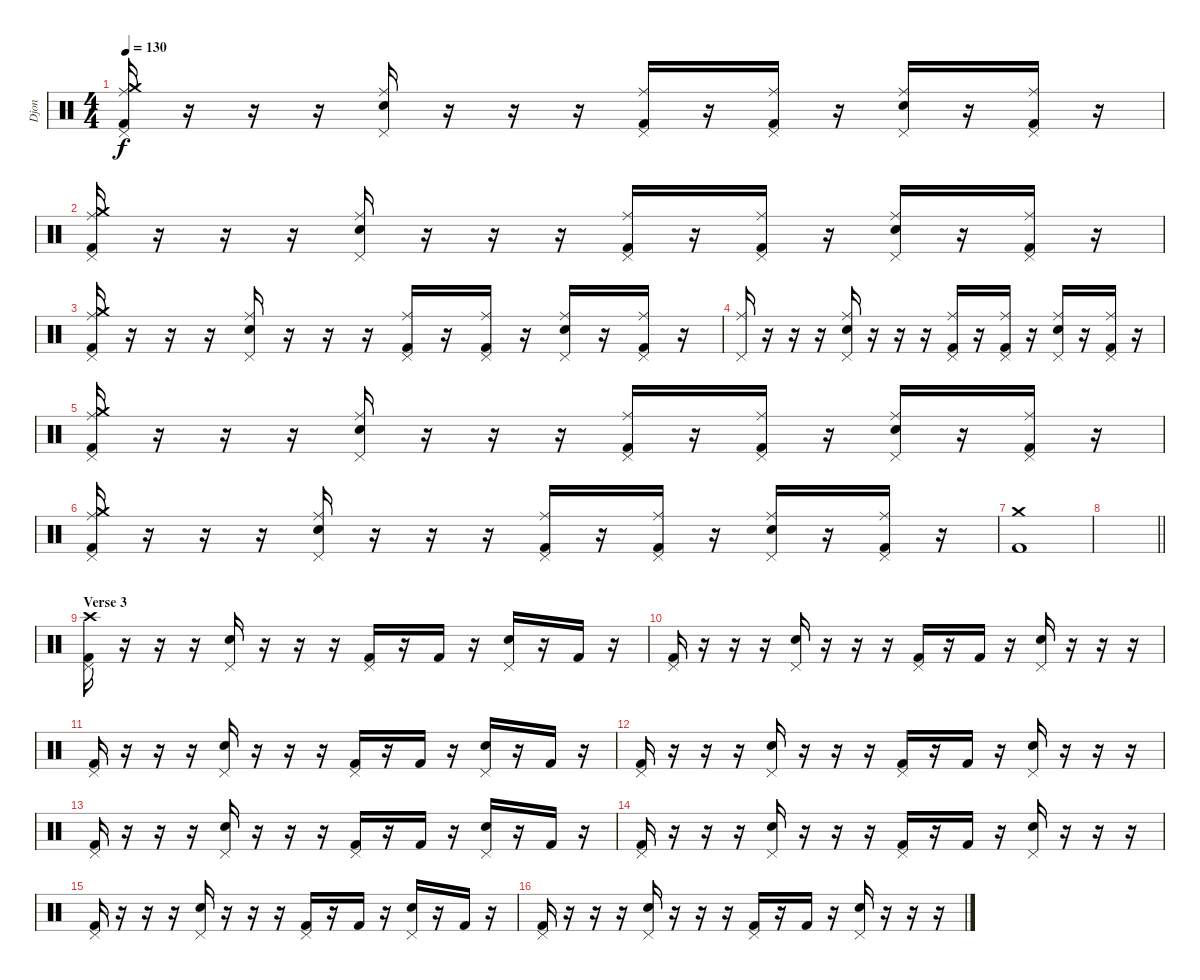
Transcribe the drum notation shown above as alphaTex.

\track ("Djon" "Djon") {instrument percussion}
\staff {score}
\articulation defaults
\ts (4 4)
\tempo 130
\clef neutral
\ks c
("Pedal Hi-Hat (hit)" "Ride (middle)" "Crash medium (hit)" "Kick (hit) 2").16{dy f} r.16 r.16 r.16 ("Pedal Hi-Hat (hit)" "Ride (middle)" "Snare (hit) 2").16 r.16 r.16 r.16 ("Pedal Hi-Hat (hit)" "Ride (middle)" "Kick (hit) 2").16 r.16 ("Pedal Hi-Hat (hit)" "Ride (middle)" "Kick (hit) 2").16 r.16 ("Pedal Hi-Hat (hit)" "Ride (middle)" "Snare (hit) 2").16 r.16 ("Pedal Hi-Hat (hit)" "Ride (middle)" "Kick (hit) 2").16 r.16 |
("Pedal Hi-Hat (hit)" "Ride (middle)" "Crash medium (hit)" "Kick (hit) 2").16 r.16 r.16 r.16 ("Pedal Hi-Hat (hit)" "Ride (middle)" "Snare (hit) 2").16 r.16 r.16 r.16 ("Pedal Hi-Hat (hit)" "Ride (middle)" "Kick (hit) 2").16 r.16 ("Pedal Hi-Hat (hit)" "Ride (middle)" "Kick (hit) 2").16 r.16 ("Pedal Hi-Hat (hit)" "Ride (middle)" "Snare (hit) 2").16 r.16 ("Pedal Hi-Hat (hit)" "Ride (middle)" "Kick (hit) 2").16 r.16 |
("Pedal Hi-Hat (hit)" "Ride (middle)" "Crash medium (hit)" "Kick (hit) 2").16 r.16 r.16 r.16 ("Pedal Hi-Hat (hit)" "Ride (middle)" "Snare (hit) 2").16 r.16 r.16 r.16 ("Pedal Hi-Hat (hit)" "Ride (middle)" "Kick (hit) 2").16 r.16 ("Pedal Hi-Hat (hit)" "Ride (middle)" "Kick (hit) 2").16 r.16 ("Pedal Hi-Hat (hit)" "Ride (middle)" "Snare (hit) 2").16 r.16 ("Pedal Hi-Hat (hit)" "Ride (middle)" "Kick (hit) 2").16 r.16 |
("Pedal Hi-Hat (hit)" "Ride (middle)").16 r.16 r.16 r.16 ("Pedal Hi-Hat (hit)" "Ride (middle)" "Snare (hit) 2").16 r.16 r.16 r.16 ("Pedal Hi-Hat (hit)" "Ride (middle)" "Kick (hit) 2").16 r.16 ("Pedal Hi-Hat (hit)" "Ride (middle)" "Kick (hit) 2").16 r.16 ("Pedal Hi-Hat (hit)" "Ride (middle)" "Snare (hit) 2").16 r.16 ("Pedal Hi-Hat (hit)" "Ride (middle)" "Kick (hit) 2").16 r.16 |
("Pedal Hi-Hat (hit)" "Ride (middle)" "Crash medium (hit)" "Kick (hit) 2").16 r.16 r.16 r.16 ("Pedal Hi-Hat (hit)" "Ride (middle)" "Snare (hit) 2").16 r.16 r.16 r.16 ("Pedal Hi-Hat (hit)" "Ride (middle)" "Kick (hit) 2").16 r.16 ("Pedal Hi-Hat (hit)" "Ride (middle)" "Kick (hit) 2").16 r.16 ("Pedal Hi-Hat (hit)" "Ride (middle)" "Snare (hit) 2").16 r.16 ("Pedal Hi-Hat (hit)" "Ride (middle)" "Kick (hit) 2").16 r.16 |
("Pedal Hi-Hat (hit)" "Ride (middle)" "Crash medium (hit)" "Kick (hit) 2").16 r.16 r.16 r.16 ("Pedal Hi-Hat (hit)" "Ride (middle)" "Snare (hit) 2").16 r.16 r.16 r.16 ("Pedal Hi-Hat (hit)" "Ride (middle)" "Kick (hit) 2").16 r.16 ("Pedal Hi-Hat (hit)" "Ride (middle)" "Kick (hit) 2").16 r.16 ("Pedal Hi-Hat (hit)" "Ride (middle)" "Snare (hit) 2").16 r.16 ("Pedal Hi-Hat (hit)" "Ride (middle)" "Kick (hit) 2").16 r.16 |
("Crash medium (hit)" "Kick (hit) 2").1 |
\barLineRight lightlight
|
\section ("" "Verse 3")
("Pedal Hi-Hat (hit)" "Crash high (hit)" "Kick (hit) 2").16 r.16 r.16 r.16 ("Pedal Hi-Hat (hit)" "Snare (hit) 2").16 r.16 r.16 r.16 ("Pedal Hi-Hat (hit)" "Kick (hit) 2").16 r.16 "Kick (hit) 2".16 r.16 ("Pedal Hi-Hat (hit)" "Snare (hit) 2").16 r.16 "Kick (hit) 2".16 r.16 |
("Pedal Hi-Hat (hit)" "Kick (hit) 2").16 r.16 r.16 r.16 ("Pedal Hi-Hat (hit)" "Snare (hit) 2").16 r.16 r.16 r.16 ("Pedal Hi-Hat (hit)" "Kick (hit) 2").16 r.16 "Kick (hit) 2".16 r.16 ("Pedal Hi-Hat (hit)" "Snare (hit) 2").16 r.16 r.16 r.16 |
("Pedal Hi-Hat (hit)" "Kick (hit) 2").16 r.16 r.16 r.16 ("Pedal Hi-Hat (hit)" "Snare (hit) 2").16 r.16 r.16 r.16 ("Pedal Hi-Hat (hit)" "Kick (hit) 2").16 r.16 "Kick (hit) 2".16 r.16 ("Pedal Hi-Hat (hit)" "Snare (hit) 2").16 r.16 "Kick (hit) 2".16 r.16 |
("Pedal Hi-Hat (hit)" "Kick (hit) 2").16 r.16 r.16 r.16 ("Pedal Hi-Hat (hit)" "Snare (hit) 2").16 r.16 r.16 r.16 ("Pedal Hi-Hat (hit)" "Kick (hit) 2").16 r.16 "Kick (hit) 2".16 r.16 ("Pedal Hi-Hat (hit)" "Snare (hit) 2").16 r.16 r.16 r.16 |
("Pedal Hi-Hat (hit)" "Kick (hit) 2").16 r.16 r.16 r.16 ("Pedal Hi-Hat (hit)" "Snare (hit) 2").16 r.16 r.16 r.16 ("Pedal Hi-Hat (hit)" "Kick (hit) 2").16 r.16 "Kick (hit) 2".16 r.16 ("Pedal Hi-Hat (hit)" "Snare (hit) 2").16 r.16 "Kick (hit) 2".16 r.16 |
("Pedal Hi-Hat (hit)" "Kick (hit) 2").16 r.16 r.16 r.16 ("Pedal Hi-Hat (hit)" "Snare (hit) 2").16 r.16 r.16 r.16 ("Pedal Hi-Hat (hit)" "Kick (hit) 2").16 r.16 "Kick (hit) 2".16 r.16 ("Pedal Hi-Hat (hit)" "Snare (hit) 2").16 r.16 r.16 r.16 |
("Pedal Hi-Hat (hit)" "Kick (hit) 2").16 r.16 r.16 r.16 ("Pedal Hi-Hat (hit)" "Snare (hit) 2").16 r.16 r.16 r.16 ("Pedal Hi-Hat (hit)" "Kick (hit) 2").16 r.16 "Kick (hit) 2".16 r.16 ("Pedal Hi-Hat (hit)" "Snare (hit) 2").16 r.16 "Kick (hit) 2".16 r.16 |
("Pedal Hi-Hat (hit)" "Kick (hit) 2").16 r.16 r.16 r.16 ("Pedal Hi-Hat (hit)" "Snare (hit) 2").16 r.16 r.16 r.16 ("Pedal Hi-Hat (hit)" "Kick (hit) 2").16 r.16 "Kick (hit) 2".16 r.16 ("Pedal Hi-Hat (hit)" "Snare (hit) 2").16 r.16 r.16 r.16
